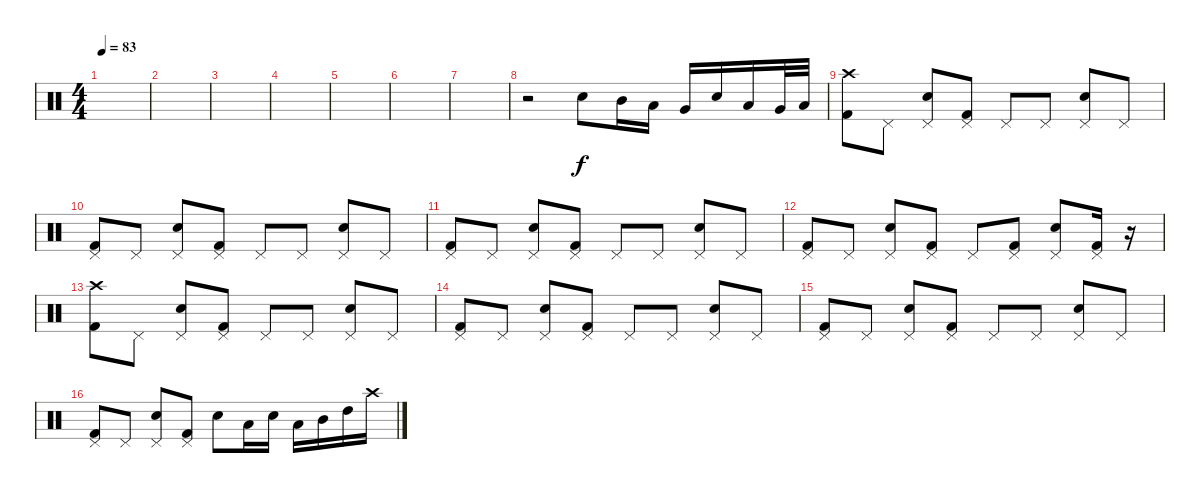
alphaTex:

\track "" {instrument percussion}
\staff {score}
\articulation defaults
\ts (4 4)
\tempo 83
\clef neutral
\ks c
|
|
|
|
|
|
|
r.2 "Snare (hit) 2".8 "Mid Tom (hit)".16{balance 0} "Low Tom (hit)".16 "Very Low Tom (hit)".16{balance 16} "Snare (hit) 2".16 "Low Tom (hit)".16{balance 0} "Very Low Tom (hit)".32 "Low Floor Tom (hit)".32 |
("Crash high (hit)" "Kick (hit) 2").8{balance 8} "Pedal Hi-Hat (hit)".8 ("Pedal Hi-Hat (hit)" "Snare (hit) 2").8 ("Pedal Hi-Hat (hit)" "Kick (hit) 2").8 "Pedal Hi-Hat (hit)".8 "Pedal Hi-Hat (hit)".8 ("Pedal Hi-Hat (hit)" "Snare (hit) 2").8 "Pedal Hi-Hat (hit)".8 |
("Pedal Hi-Hat (hit)" "Kick (hit) 2").8 "Pedal Hi-Hat (hit)".8 ("Pedal Hi-Hat (hit)" "Snare (hit) 2").8 ("Pedal Hi-Hat (hit)" "Kick (hit) 2").8 "Pedal Hi-Hat (hit)".8 "Pedal Hi-Hat (hit)".8 ("Pedal Hi-Hat (hit)" "Snare (hit) 2").8 "Pedal Hi-Hat (hit)".8 |
("Pedal Hi-Hat (hit)" "Kick (hit) 2").8 "Pedal Hi-Hat (hit)".8 ("Pedal Hi-Hat (hit)" "Snare (hit) 2").8 ("Pedal Hi-Hat (hit)" "Kick (hit) 2").8 "Pedal Hi-Hat (hit)".8 "Pedal Hi-Hat (hit)".8 ("Pedal Hi-Hat (hit)" "Snare (hit) 2").8 "Pedal Hi-Hat (hit)".8 |
("Pedal Hi-Hat (hit)" "Kick (hit) 2").8 "Pedal Hi-Hat (hit)".8 ("Pedal Hi-Hat (hit)" "Snare (hit) 2").8 ("Pedal Hi-Hat (hit)" "Kick (hit) 2").8 "Pedal Hi-Hat (hit)".8 ("Pedal Hi-Hat (hit)" "Kick (hit) 2").8 ("Pedal Hi-Hat (hit)" "Snare (hit) 2").8 ("Pedal Hi-Hat (hit)" "Kick (hit) 2").16 r.16 |
("Crash high (hit)" "Kick (hit) 2").8 "Pedal Hi-Hat (hit)".8 ("Pedal Hi-Hat (hit)" "Snare (hit) 2").8 ("Pedal Hi-Hat (hit)" "Kick (hit) 2").8 "Pedal Hi-Hat (hit)".8 "Pedal Hi-Hat (hit)".8 ("Pedal Hi-Hat (hit)" "Snare (hit) 2").8 "Pedal Hi-Hat (hit)".8 |
("Pedal Hi-Hat (hit)" "Kick (hit) 2").8 "Pedal Hi-Hat (hit)".8 ("Pedal Hi-Hat (hit)" "Snare (hit) 2").8 ("Pedal Hi-Hat (hit)" "Kick (hit) 2").8 "Pedal Hi-Hat (hit)".8 "Pedal Hi-Hat (hit)".8 ("Pedal Hi-Hat (hit)" "Snare (hit) 2").8 "Pedal Hi-Hat (hit)".8 |
("Pedal Hi-Hat (hit)" "Kick (hit) 2").8 "Pedal Hi-Hat (hit)".8 ("Pedal Hi-Hat (hit)" "Snare (hit) 2").8 ("Pedal Hi-Hat (hit)" "Kick (hit) 2").8 "Pedal Hi-Hat (hit)".8 "Pedal Hi-Hat (hit)".8 ("Pedal Hi-Hat (hit)" "Snare (hit) 2").8 "Pedal Hi-Hat (hit)".8 |
("Pedal Hi-Hat (hit)" "Kick (hit) 2").8 "Pedal Hi-Hat (hit)".8 ("Pedal Hi-Hat (hit)" "Snare (hit) 2").8 ("Pedal Hi-Hat (hit)" "Kick (hit) 2").8 "Snare (hit) 2".8 "Low Tom (hit)".16 "Snare (hit) 2".16 "Low Tom (hit)".16 "Mid Tom (hit)".16 "High Tom (hit)".16 "Crash high (hit)".16
